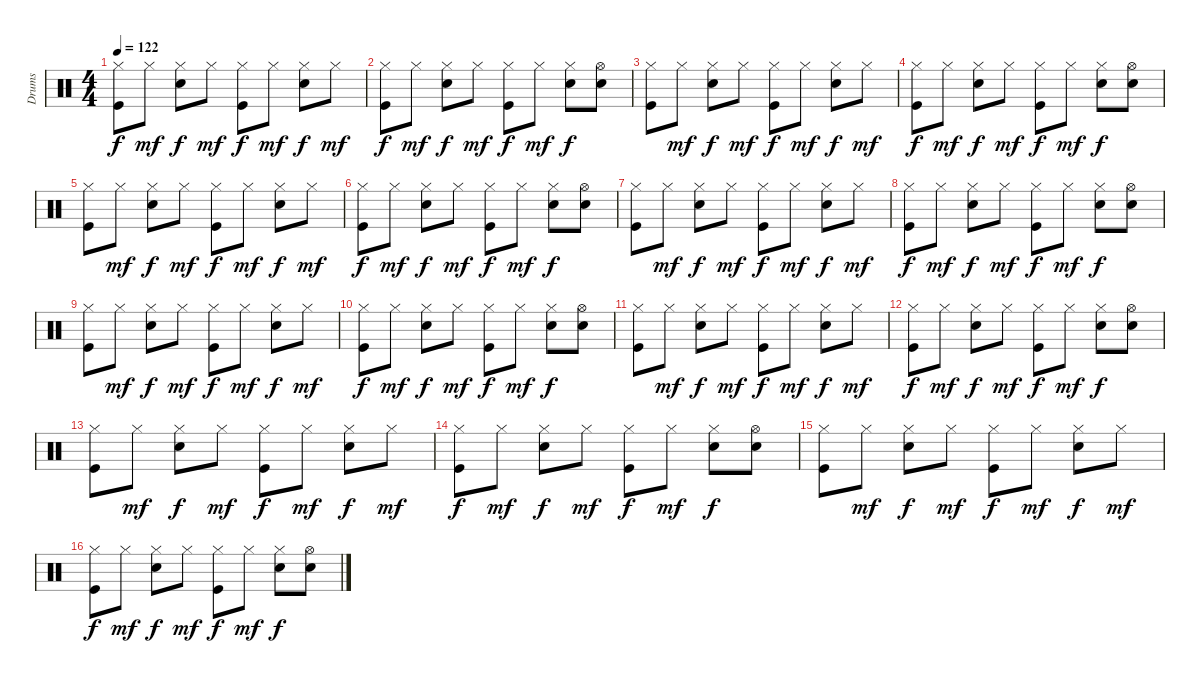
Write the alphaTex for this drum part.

\track ("Drums" "Drums") {instrument percussion}
\staff {score}
\articulation defaults
\ts (4 4)
\tempo 122
\clef neutral
\ks c
("Kick (hit)" "Hi-Hat (closed)").8{dy f} "Hi-Hat (closed)".8{dy mf} ("Electric Snare (hit)" "Hi-Hat (closed)").8{dy f} "Hi-Hat (closed)".8{dy mf} ("Kick (hit)" "Hi-Hat (closed)").8{dy f} "Hi-Hat (closed)".8{dy mf} ("Electric Snare (hit)" "Hi-Hat (closed)").8{dy f} "Hi-Hat (closed)".8{dy mf} |
("Kick (hit)" "Hi-Hat (closed)").8{dy f} "Hi-Hat (closed)".8{dy mf} ("Electric Snare (hit)" "Hi-Hat (closed)").8{dy f} "Hi-Hat (closed)".8{dy mf} ("Kick (hit)" "Hi-Hat (closed)").8{dy f} "Hi-Hat (closed)".8{dy mf} ("Electric Snare (hit)" "Hi-Hat (closed)").8{dy f} ("Electric Snare (hit)" "Hi-Hat (open)").8 |
("Kick (hit)" "Hi-Hat (closed)").8 "Hi-Hat (closed)".8{dy mf} ("Electric Snare (hit)" "Hi-Hat (closed)").8{dy f} "Hi-Hat (closed)".8{dy mf} ("Kick (hit)" "Hi-Hat (closed)").8{dy f} "Hi-Hat (closed)".8{dy mf} ("Electric Snare (hit)" "Hi-Hat (closed)").8{dy f} "Hi-Hat (closed)".8{dy mf} |
("Kick (hit)" "Hi-Hat (closed)").8{dy f} "Hi-Hat (closed)".8{dy mf} ("Electric Snare (hit)" "Hi-Hat (closed)").8{dy f} "Hi-Hat (closed)".8{dy mf} ("Kick (hit)" "Hi-Hat (closed)").8{dy f} "Hi-Hat (closed)".8{dy mf} ("Electric Snare (hit)" "Hi-Hat (closed)").8{dy f} ("Electric Snare (hit)" "Hi-Hat (open)").8 |
("Kick (hit)" "Hi-Hat (closed)").8 "Hi-Hat (closed)".8{dy mf} ("Electric Snare (hit)" "Hi-Hat (closed)").8{dy f} "Hi-Hat (closed)".8{dy mf} ("Kick (hit)" "Hi-Hat (closed)").8{dy f} "Hi-Hat (closed)".8{dy mf} ("Electric Snare (hit)" "Hi-Hat (closed)").8{dy f} "Hi-Hat (closed)".8{dy mf} |
("Kick (hit)" "Hi-Hat (closed)").8{dy f} "Hi-Hat (closed)".8{dy mf} ("Electric Snare (hit)" "Hi-Hat (closed)").8{dy f} "Hi-Hat (closed)".8{dy mf} ("Kick (hit)" "Hi-Hat (closed)").8{dy f} "Hi-Hat (closed)".8{dy mf} ("Electric Snare (hit)" "Hi-Hat (closed)").8{dy f} ("Electric Snare (hit)" "Hi-Hat (open)").8 |
("Kick (hit)" "Hi-Hat (closed)").8 "Hi-Hat (closed)".8{dy mf} ("Electric Snare (hit)" "Hi-Hat (closed)").8{dy f} "Hi-Hat (closed)".8{dy mf} ("Kick (hit)" "Hi-Hat (closed)").8{dy f} "Hi-Hat (closed)".8{dy mf} ("Electric Snare (hit)" "Hi-Hat (closed)").8{dy f} "Hi-Hat (closed)".8{dy mf} |
("Kick (hit)" "Hi-Hat (closed)").8{dy f} "Hi-Hat (closed)".8{dy mf} ("Electric Snare (hit)" "Hi-Hat (closed)").8{dy f} "Hi-Hat (closed)".8{dy mf} ("Kick (hit)" "Hi-Hat (closed)").8{dy f} "Hi-Hat (closed)".8{dy mf} ("Electric Snare (hit)" "Hi-Hat (closed)").8{dy f} ("Electric Snare (hit)" "Hi-Hat (open)").8 |
("Kick (hit)" "Hi-Hat (closed)").8 "Hi-Hat (closed)".8{dy mf} ("Electric Snare (hit)" "Hi-Hat (closed)").8{dy f} "Hi-Hat (closed)".8{dy mf} ("Kick (hit)" "Hi-Hat (closed)").8{dy f} "Hi-Hat (closed)".8{dy mf} ("Electric Snare (hit)" "Hi-Hat (closed)").8{dy f} "Hi-Hat (closed)".8{dy mf} |
("Kick (hit)" "Hi-Hat (closed)").8{dy f} "Hi-Hat (closed)".8{dy mf} ("Electric Snare (hit)" "Hi-Hat (closed)").8{dy f} "Hi-Hat (closed)".8{dy mf} ("Kick (hit)" "Hi-Hat (closed)").8{dy f} "Hi-Hat (closed)".8{dy mf} ("Electric Snare (hit)" "Hi-Hat (closed)").8{dy f} ("Electric Snare (hit)" "Hi-Hat (open)").8 |
("Kick (hit)" "Hi-Hat (closed)").8 "Hi-Hat (closed)".8{dy mf} ("Electric Snare (hit)" "Hi-Hat (closed)").8{dy f} "Hi-Hat (closed)".8{dy mf} ("Kick (hit)" "Hi-Hat (closed)").8{dy f} "Hi-Hat (closed)".8{dy mf} ("Electric Snare (hit)" "Hi-Hat (closed)").8{dy f} "Hi-Hat (closed)".8{dy mf} |
("Kick (hit)" "Hi-Hat (closed)").8{dy f} "Hi-Hat (closed)".8{dy mf} ("Electric Snare (hit)" "Hi-Hat (closed)").8{dy f} "Hi-Hat (closed)".8{dy mf} ("Kick (hit)" "Hi-Hat (closed)").8{dy f} "Hi-Hat (closed)".8{dy mf} ("Electric Snare (hit)" "Hi-Hat (closed)").8{dy f} ("Electric Snare (hit)" "Hi-Hat (open)").8 |
("Kick (hit)" "Hi-Hat (closed)").8 "Hi-Hat (closed)".8{dy mf} ("Electric Snare (hit)" "Hi-Hat (closed)").8{dy f} "Hi-Hat (closed)".8{dy mf} ("Kick (hit)" "Hi-Hat (closed)").8{dy f} "Hi-Hat (closed)".8{dy mf} ("Electric Snare (hit)" "Hi-Hat (closed)").8{dy f} "Hi-Hat (closed)".8{dy mf} |
("Kick (hit)" "Hi-Hat (closed)").8{dy f} "Hi-Hat (closed)".8{dy mf} ("Electric Snare (hit)" "Hi-Hat (closed)").8{dy f} "Hi-Hat (closed)".8{dy mf} ("Kick (hit)" "Hi-Hat (closed)").8{dy f} "Hi-Hat (closed)".8{dy mf} ("Electric Snare (hit)" "Hi-Hat (closed)").8{dy f} ("Electric Snare (hit)" "Hi-Hat (open)").8 |
("Kick (hit)" "Hi-Hat (closed)").8 "Hi-Hat (closed)".8{dy mf} ("Electric Snare (hit)" "Hi-Hat (closed)").8{dy f} "Hi-Hat (closed)".8{dy mf} ("Kick (hit)" "Hi-Hat (closed)").8{dy f} "Hi-Hat (closed)".8{dy mf} ("Electric Snare (hit)" "Hi-Hat (closed)").8{dy f} "Hi-Hat (closed)".8{dy mf} |
("Kick (hit)" "Hi-Hat (closed)").8{dy f} "Hi-Hat (closed)".8{dy mf} ("Electric Snare (hit)" "Hi-Hat (closed)").8{dy f} "Hi-Hat (closed)".8{dy mf} ("Kick (hit)" "Hi-Hat (closed)").8{dy f} "Hi-Hat (closed)".8{dy mf} ("Electric Snare (hit)" "Hi-Hat (closed)").8{dy f} ("Electric Snare (hit)" "Hi-Hat (open)").8
